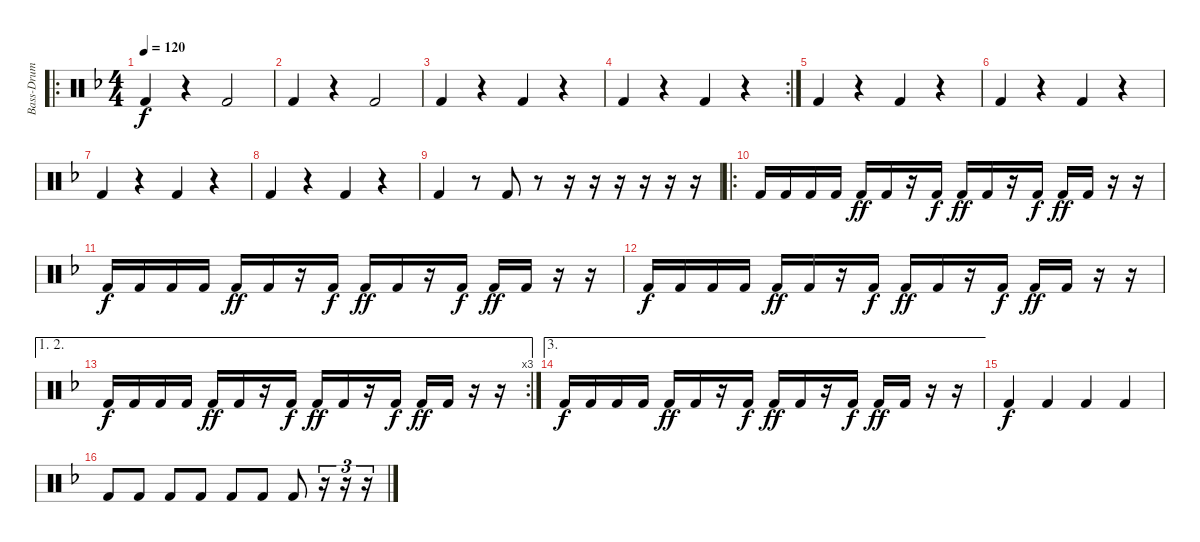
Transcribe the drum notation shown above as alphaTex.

\track ("Bass-Drum" "Bass-Drum") {instrument percussion}
\staff {score}
\articulation defaults
\ro
\ts (4 4)
\tempo 120
\clef neutral
\ks f "Kick (hit) 2".4{dy f}
r.4 "Kick (hit) 2".2 |
"Kick (hit) 2".4 r.4 "Kick (hit) 2".2 |
"Kick (hit) 2".4 r.4 "Kick (hit) 2".4 r.4 |
\rc 2 "Kick (hit) 2".4
r.4 "Kick (hit) 2".4 r.4 |
"Kick (hit) 2".4 r.4 "Kick (hit) 2".4 r.4 |
"Kick (hit) 2".4 r.4 "Kick (hit) 2".4 r.4 |
"Kick (hit) 2".4 r.4 "Kick (hit) 2".4 r.4 |
"Kick (hit) 2".4 r.4 "Kick (hit) 2".4 r.4 |
"Kick (hit) 2".4 r.8 "Kick (hit) 2".8 r.8 r.16 r.16 r.16 r.16 r.16 r.16 |
\ro "Kick (hit) 2".16 "Kick (hit) 2".16 "Kick (hit) 2".16 "Kick (hit) 2".16 "Kick (hit) 2".16{dy ff} "Kick (hit) 2".16
r.16 "Kick (hit) 2".16{dy f} "Kick (hit) 2".16{dy ff} "Kick (hit) 2".16 r.16 "Kick (hit) 2".16{dy f} "Kick (hit) 2".16{dy ff} "Kick (hit) 2".16 r.16 r.16 |
"Kick (hit) 2".16{dy f} "Kick (hit) 2".16 "Kick (hit) 2".16 "Kick (hit) 2".16 "Kick (hit) 2".16{dy ff} "Kick (hit) 2".16 r.16 "Kick (hit) 2".16{dy f} "Kick (hit) 2".16{dy ff} "Kick (hit) 2".16 r.16 "Kick (hit) 2".16{dy f} "Kick (hit) 2".16{dy ff} "Kick (hit) 2".16 r.16 r.16 |
"Kick (hit) 2".16{dy f} "Kick (hit) 2".16 "Kick (hit) 2".16 "Kick (hit) 2".16 "Kick (hit) 2".16{dy ff} "Kick (hit) 2".16 r.16 "Kick (hit) 2".16{dy f} "Kick (hit) 2".16{dy ff} "Kick (hit) 2".16 r.16 "Kick (hit) 2".16{dy f} "Kick (hit) 2".16{dy ff} "Kick (hit) 2".16 r.16 r.16 |
\ae (1 2)
\rc 3 "Kick (hit) 2".16{dy f} "Kick (hit) 2".16 "Kick (hit) 2".16 "Kick (hit) 2".16 "Kick (hit) 2".16{dy ff} "Kick (hit) 2".16
r.16 "Kick (hit) 2".16{dy f} "Kick (hit) 2".16{dy ff} "Kick (hit) 2".16 r.16 "Kick (hit) 2".16{dy f} "Kick (hit) 2".16{dy ff} "Kick (hit) 2".16 r.16 r.16 |
\ae 3 "Kick (hit) 2".16{dy f} "Kick (hit) 2".16 "Kick (hit) 2".16 "Kick (hit) 2".16 "Kick (hit) 2".16{dy ff} "Kick (hit) 2".16
r.16 "Kick (hit) 2".16{dy f} "Kick (hit) 2".16{dy ff} "Kick (hit) 2".16 r.16 "Kick (hit) 2".16{dy f} "Kick (hit) 2".16{dy ff} "Kick (hit) 2".16 r.16 r.16 |
"Kick (hit) 2".4{dy f} "Kick (hit) 2".4 "Kick (hit) 2".4 "Kick (hit) 2".4 |
"Kick (hit) 2".8 "Kick (hit) 2".8 "Kick (hit) 2".8 "Kick (hit) 2".8 "Kick (hit) 2".8 "Kick (hit) 2".8 "Kick (hit) 2".8 r.16{tu (3 2)} r.16{tu (3 2)} r.16{tu (3 2)}
